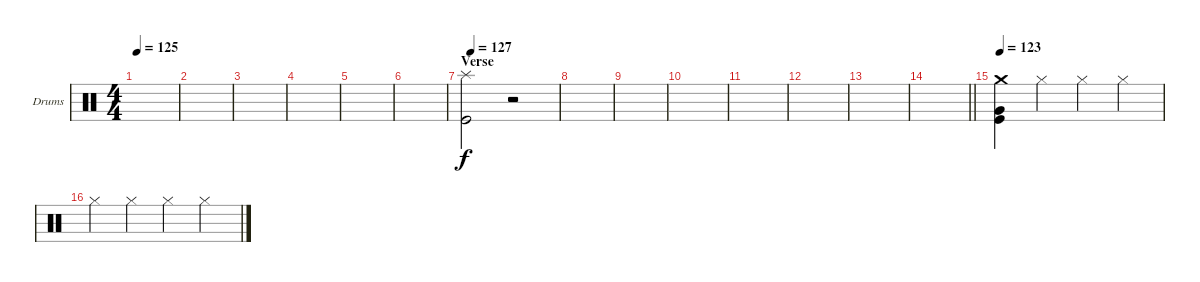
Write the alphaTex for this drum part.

\defaultSystemsLayout 4
\bracketExtendMode groupsimilarinstruments
\firstSystemTrackNameOrientation horizontal
\otherSystemsTrackNameOrientation horizontal
\chordDiagramsInScore
\track ("Drumkit" "Drums") {instrument percussion}
\staff {score}
\articulation defaults
\ts (4 4)
\tempo 125
\clef neutral
\scale
0.333333
\ks c
|
\scale
0.333333 |
\scale
0.333333 |
\scale
0.333333 |
\scale
0.333333 |
\scale
0.333333 |
\section ("" "Verse")
\tempo (127 0.0625)
\scale
0.333333 ("Kick (hit)" "Splash (hit)").2 r.2 |
\scale
0.333333 |
\scale
0.333333 |
\scale
0.333333 |
\scale
0.333333 |
\scale
0.333333 |
\scale
0.333333 |
\scale
0.333333
\barLineRight lightlight
|
\tempo 123
\scale
0.333333 ("Kick (hit)" "Very Low Tom (hit)" "Crash medium (hit)").4 "Hi-Hat (closed)".4 "Hi-Hat (closed)".4 "Hi-Hat (closed)".4 |
\scale
0.333333 "Hi-Hat (closed)".4 "Hi-Hat (closed)".4 "Hi-Hat (closed)".4 "Hi-Hat (closed)".4
